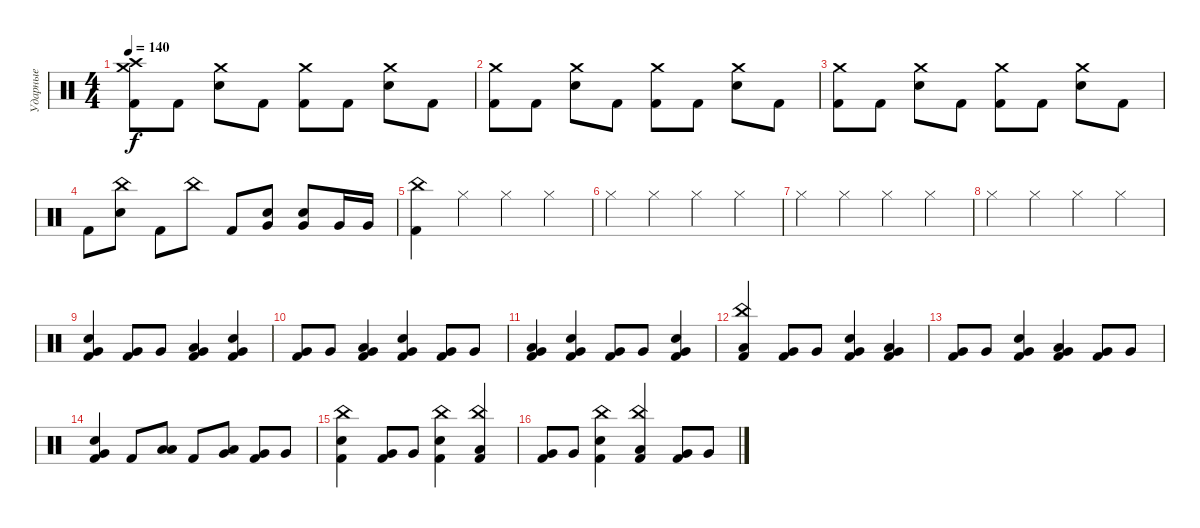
\track ("Ударные" "Ударные") {instrument percussion}
\staff {score}
\articulation defaults
\ts (4 4)
\tempo 140
\clef neutral
\ks c
("Crash medium (hit)" "Kick (hit) 2" "Crash high (hit)").8{dy f} "Kick (hit) 2".8 ("Electric Snare (hit)" "Crash medium (hit)").8 "Kick (hit) 2".8 ("Kick (hit) 2" "Crash medium (hit)").8 "Kick (hit) 2".8 ("Electric Snare (hit)" "Crash medium (hit)").8 "Kick (hit) 2".8 |
("Crash medium (hit)" "Kick (hit) 2").8 "Kick (hit) 2".8 ("Electric Snare (hit)" "Crash medium (hit)").8 "Kick (hit) 2".8 ("Kick (hit) 2" "Crash medium (hit)").8 "Kick (hit) 2".8 ("Electric Snare (hit)" "Crash medium (hit)").8 "Kick (hit) 2".8 |
("Crash medium (hit)" "Kick (hit) 2").8 "Kick (hit) 2".8 ("Electric Snare (hit)" "Crash medium (hit)").8 "Kick (hit) 2".8 ("Kick (hit) 2" "Crash medium (hit)").8 "Kick (hit) 2".8 ("Electric Snare (hit)" "Crash medium (hit)").8 "Kick (hit) 2".8 |
"Kick (hit) 2".8 ("China (hit)" "Electric Snare (hit)").8 "Kick (hit) 2".8 "China (hit)".8 "Kick (hit) 2".8 ("Electric Snare (hit)" "Very Low Tom (hit)").8 ("Electric Snare (hit)" "Very Low Tom (hit)").8 "Very Low Tom (hit)".16 "Very Low Tom (hit)".16 |
("China (hit)" "Kick (hit) 2").4 "Hi-Hat (closed)".4 "Hi-Hat (closed)".4 "Hi-Hat (closed)".4 |
"Hi-Hat (closed)".4 "Hi-Hat (closed)".4 "Hi-Hat (closed)".4 "Hi-Hat (closed)".4 |
"Hi-Hat (closed)".4 "Hi-Hat (closed)".4 "Hi-Hat (closed)".4 "Hi-Hat (closed)".4 |
"Hi-Hat (closed)".4 "Hi-Hat (closed)".4 "Hi-Hat (closed)".4 "Hi-Hat (closed)".4 |
("Electric Snare (hit)" "Very Low Tom (hit)" "Kick (hit) 2").4 ("Very Low Tom (hit)" "Kick (hit) 2").8 "Very Low Tom (hit)".8 ("Low Tom (hit)" "Very Low Tom (hit)" "Kick (hit) 2").4 ("Electric Snare (hit)" "Very Low Tom (hit)" "Kick (hit) 2").4 |
("Very Low Tom (hit)" "Kick (hit) 2").8 "Very Low Tom (hit)".8 ("Low Tom (hit)" "Very Low Tom (hit)" "Kick (hit) 2").4 ("Electric Snare (hit)" "Very Low Tom (hit)" "Kick (hit) 2").4 ("Very Low Tom (hit)" "Kick (hit) 2").8 "Very Low Tom (hit)".8 |
("Low Tom (hit)" "Very Low Tom (hit)" "Kick (hit) 2").4 ("Electric Snare (hit)" "Very Low Tom (hit)" "Kick (hit) 2").4 ("Very Low Tom (hit)" "Kick (hit) 2").8 "Very Low Tom (hit)".8 ("Electric Snare (hit)" "Very Low Tom (hit)" "Kick (hit) 2").4 |
("China (hit)" "Low Tom (hit)" "Kick (hit) 2").4 ("Very Low Tom (hit)" "Kick (hit) 2").8 "Very Low Tom (hit)".8 ("Electric Snare (hit)" "Very Low Tom (hit)" "Kick (hit) 2").4 ("Low Tom (hit)" "Very Low Tom (hit)" "Kick (hit) 2").4 |
("Very Low Tom (hit)" "Kick (hit) 2").8 "Very Low Tom (hit)".8 ("Electric Snare (hit)" "Very Low Tom (hit)" "Kick (hit) 2").4 ("Low Tom (hit)" "Very Low Tom (hit)" "Kick (hit) 2").4 ("Very Low Tom (hit)" "Kick (hit) 2").8 "Very Low Tom (hit)".8 |
("Electric Snare (hit)" "Very Low Tom (hit)" "Kick (hit) 2").4 "Kick (hit) 2".8 ("Low Tom (hit)" "Low Tom (hit)").8 "Kick (hit) 2".8 ("Very Low Tom (hit)" "Low Tom (hit)").8 ("Very Low Tom (hit)" "Kick (hit) 2").8 "Very Low Tom (hit)".8 |
("China (hit)" "Electric Snare (hit)" "Kick (hit) 2").4 ("Very Low Tom (hit)" "Kick (hit) 2").8 "Very Low Tom (hit)".8 ("China (hit)" "Electric Snare (hit)" "Kick (hit) 2").4 ("China (hit)" "Low Tom (hit)" "Kick (hit) 2").4 |
("Very Low Tom (hit)" "Kick (hit) 2").8 "Very Low Tom (hit)".8 ("China (hit)" "Electric Snare (hit)" "Kick (hit) 2").4 ("China (hit)" "Low Tom (hit)" "Kick (hit) 2").4 ("Very Low Tom (hit)" "Kick (hit) 2").8 "Very Low Tom (hit)".8
